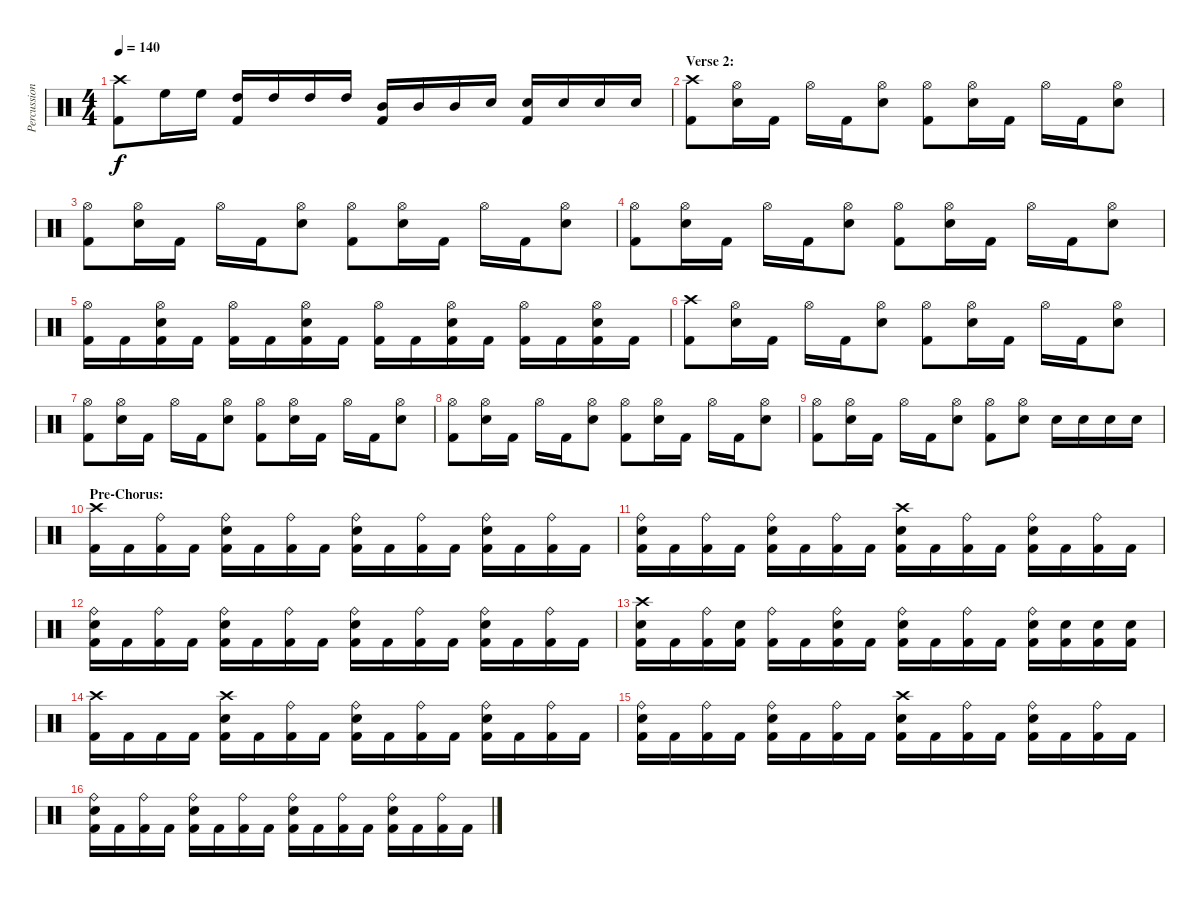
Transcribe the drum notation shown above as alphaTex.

\track ("Percussion" "Percussion") {instrument percussion}
\staff {score}
\articulation defaults
\ts (4 4)
\tempo 140
\clef neutral
\ks c
("Crash high (hit)" "Kick (hit) 2").8{dy f} "High Floor Tom (hit)".16 "High Floor Tom (hit)".16 ("High Tom (hit)" "Kick (hit) 2").16 "High Tom (hit)".16 "High Tom (hit)".16 "High Tom (hit)".16 ("Mid Tom (hit)" "Kick (hit) 2").16 "Mid Tom (hit)".16 "Mid Tom (hit)".16 "Electric Snare (hit)".16 ("Electric Snare (hit)" "Kick (hit) 2").16 "Electric Snare (hit)".16 "Electric Snare (hit)".16 "Electric Snare (hit)".16 |
\section ("" "Verse 2:")
("Crash high (hit)" "Kick (hit) 2").8 ("Hi-Hat (open)" "Electric Snare (hit)").16 "Kick (hit) 2".16 "Hi-Hat (open)".16 "Kick (hit) 2".16 ("Hi-Hat (open)" "Electric Snare (hit)").8 ("Hi-Hat (open)" "Kick (hit) 2").8 ("Hi-Hat (open)" "Electric Snare (hit)").16 "Kick (hit) 2".16 "Hi-Hat (open)".16 "Kick (hit) 2".16 ("Hi-Hat (open)" "Electric Snare (hit)").8 |
("Hi-Hat (open)" "Kick (hit) 2").8 ("Hi-Hat (open)" "Electric Snare (hit)").16 "Kick (hit) 2".16 "Hi-Hat (open)".16 "Kick (hit) 2".16 ("Hi-Hat (open)" "Electric Snare (hit)").8 ("Hi-Hat (open)" "Kick (hit) 2").8 ("Hi-Hat (open)" "Electric Snare (hit)").16 "Kick (hit) 2".16 "Hi-Hat (open)".16 "Kick (hit) 2".16 ("Hi-Hat (open)" "Electric Snare (hit)").8 |
("Hi-Hat (open)" "Kick (hit) 2").8 ("Hi-Hat (open)" "Electric Snare (hit)").16 "Kick (hit) 2".16 "Hi-Hat (open)".16 "Kick (hit) 2".16 ("Hi-Hat (open)" "Electric Snare (hit)").8 ("Hi-Hat (open)" "Kick (hit) 2").8 ("Hi-Hat (open)" "Electric Snare (hit)").16 "Kick (hit) 2".16 "Hi-Hat (open)".16 "Kick (hit) 2".16 ("Hi-Hat (open)" "Electric Snare (hit)").8 |
("Hi-Hat (open)" "Kick (hit) 2").16 "Kick (hit) 2".16 ("Hi-Hat (open)" "Electric Snare (hit)" "Kick (hit) 2").16 "Kick (hit) 2".16 ("Hi-Hat (open)" "Kick (hit) 2").16 "Kick (hit) 2".16 ("Hi-Hat (open)" "Electric Snare (hit)" "Kick (hit) 2").16 "Kick (hit) 2".16 ("Hi-Hat (open)" "Kick (hit) 2").16 "Kick (hit) 2".16 ("Hi-Hat (open)" "Electric Snare (hit)" "Kick (hit) 2").16 "Kick (hit) 2".16 ("Hi-Hat (open)" "Kick (hit) 2").16 "Kick (hit) 2".16 ("Hi-Hat (open)" "Electric Snare (hit)" "Kick (hit) 2").16 "Kick (hit) 2".16 |
("Crash high (hit)" "Kick (hit) 2").8 ("Hi-Hat (open)" "Electric Snare (hit)").16 "Kick (hit) 2".16 "Hi-Hat (open)".16 "Kick (hit) 2".16 ("Hi-Hat (open)" "Electric Snare (hit)").8 ("Hi-Hat (open)" "Kick (hit) 2").8 ("Hi-Hat (open)" "Electric Snare (hit)").16 "Kick (hit) 2".16 "Hi-Hat (open)".16 "Kick (hit) 2".16 ("Hi-Hat (open)" "Electric Snare (hit)").8 |
("Hi-Hat (open)" "Kick (hit) 2").8 ("Hi-Hat (open)" "Electric Snare (hit)").16 "Kick (hit) 2".16 "Hi-Hat (open)".16 "Kick (hit) 2".16 ("Hi-Hat (open)" "Electric Snare (hit)").8 ("Hi-Hat (open)" "Kick (hit) 2").8 ("Hi-Hat (open)" "Electric Snare (hit)").16 "Kick (hit) 2".16 "Hi-Hat (open)".16 "Kick (hit) 2".16 ("Hi-Hat (open)" "Electric Snare (hit)").8 |
("Hi-Hat (open)" "Kick (hit) 2").8 ("Hi-Hat (open)" "Electric Snare (hit)").16 "Kick (hit) 2".16 "Hi-Hat (open)".16 "Kick (hit) 2".16 ("Hi-Hat (open)" "Electric Snare (hit)").8 ("Hi-Hat (open)" "Kick (hit) 2").8 ("Hi-Hat (open)" "Electric Snare (hit)").16 "Kick (hit) 2".16 "Hi-Hat (open)".16 "Kick (hit) 2".16 ("Hi-Hat (open)" "Electric Snare (hit)").8 |
("Hi-Hat (open)" "Kick (hit) 2").8 ("Hi-Hat (open)" "Electric Snare (hit)").16 "Kick (hit) 2".16 "Hi-Hat (open)".16 "Kick (hit) 2".16 ("Hi-Hat (open)" "Electric Snare (hit)").8 ("Hi-Hat (open)" "Kick (hit) 2").8 ("Hi-Hat (open)" "Electric Snare (hit)").8 "Electric Snare (hit)".16 "Electric Snare (hit)".16 "Electric Snare (hit)".16 "Electric Snare (hit)".16 |
\section ("" "Pre-Chorus:")
("Crash high (hit)" "Kick (hit) 2").16 "Kick (hit) 2".16 ("Ride (bell)" "Kick (hit) 2").16 "Kick (hit) 2".16 ("Ride (bell)" "Electric Snare (hit)" "Kick (hit) 2").16 "Kick (hit) 2".16 ("Ride (bell)" "Kick (hit) 2").16 "Kick (hit) 2".16 ("Ride (bell)" "Electric Snare (hit)" "Kick (hit) 2").16 "Kick (hit) 2".16 ("Ride (bell)" "Kick (hit) 2").16 "Kick (hit) 2".16 ("Ride (bell)" "Electric Snare (hit)" "Kick (hit) 2").16 "Kick (hit) 2".16 ("Ride (bell)" "Kick (hit) 2").16 "Kick (hit) 2".16 |
("Ride (bell)" "Electric Snare (hit)" "Kick (hit) 2").16 "Kick (hit) 2".16 ("Ride (bell)" "Kick (hit) 2").16 "Kick (hit) 2".16 ("Ride (bell)" "Electric Snare (hit)" "Kick (hit) 2").16 "Kick (hit) 2".16 ("Ride (bell)" "Kick (hit) 2").16 "Kick (hit) 2".16 ("Crash high (hit)" "Electric Snare (hit)" "Kick (hit) 2").16 "Kick (hit) 2".16 ("Ride (bell)" "Kick (hit) 2").16 "Kick (hit) 2".16 ("Ride (bell)" "Electric Snare (hit)" "Kick (hit) 2").16 "Kick (hit) 2".16 ("Ride (bell)" "Kick (hit) 2").16 "Kick (hit) 2".16 |
("Ride (bell)" "Electric Snare (hit)" "Kick (hit) 2").16 "Kick (hit) 2".16 ("Ride (bell)" "Kick (hit) 2").16 "Kick (hit) 2".16 ("Ride (bell)" "Electric Snare (hit)" "Kick (hit) 2").16 "Kick (hit) 2".16 ("Ride (bell)" "Kick (hit) 2").16 "Kick (hit) 2".16 ("Ride (bell)" "Electric Snare (hit)" "Kick (hit) 2").16 "Kick (hit) 2".16 ("Ride (bell)" "Kick (hit) 2").16 "Kick (hit) 2".16 ("Ride (bell)" "Electric Snare (hit)" "Kick (hit) 2").16 "Kick (hit) 2".16 ("Ride (bell)" "Kick (hit) 2").16 "Kick (hit) 2".16 |
("Crash high (hit)" "Electric Snare (hit)" "Kick (hit) 2").16 "Kick (hit) 2".16 ("Ride (bell)" "Kick (hit) 2").16 ("Electric Snare (hit)" "Kick (hit) 2").16 ("Ride (bell)" "Kick (hit) 2").16 "Kick (hit) 2".16 ("Ride (bell)" "Electric Snare (hit)" "Kick (hit) 2").16 "Kick (hit) 2".16 ("Ride (bell)" "Electric Snare (hit)" "Kick (hit) 2").16 "Kick (hit) 2".16 ("Ride (bell)" "Kick (hit) 2").16 "Kick (hit) 2".16 ("Ride (bell)" "Electric Snare (hit)" "Kick (hit) 2").16 ("Electric Snare (hit)" "Kick (hit) 2").16 ("Electric Snare (hit)" "Kick (hit) 2").16 ("Electric Snare (hit)" "Kick (hit) 2").16 |
("Crash high (hit)" "Kick (hit) 2").16 "Kick (hit) 2".16 "Kick (hit) 2".16 "Kick (hit) 2".16 ("Crash high (hit)" "Electric Snare (hit)" "Kick (hit) 2").16 "Kick (hit) 2".16 ("Ride (bell)" "Kick (hit) 2").16 "Kick (hit) 2".16 ("Ride (bell)" "Electric Snare (hit)" "Kick (hit) 2").16 "Kick (hit) 2".16 ("Ride (bell)" "Kick (hit) 2").16 "Kick (hit) 2".16 ("Ride (bell)" "Electric Snare (hit)" "Kick (hit) 2").16 "Kick (hit) 2".16 ("Ride (bell)" "Kick (hit) 2").16 "Kick (hit) 2".16 |
("Ride (bell)" "Electric Snare (hit)" "Kick (hit) 2").16 "Kick (hit) 2".16 ("Ride (bell)" "Kick (hit) 2").16 "Kick (hit) 2".16 ("Ride (bell)" "Electric Snare (hit)" "Kick (hit) 2").16 "Kick (hit) 2".16 ("Ride (bell)" "Kick (hit) 2").16 "Kick (hit) 2".16 ("Crash high (hit)" "Electric Snare (hit)" "Kick (hit) 2").16 "Kick (hit) 2".16 ("Ride (bell)" "Kick (hit) 2").16 "Kick (hit) 2".16 ("Ride (bell)" "Electric Snare (hit)" "Kick (hit) 2").16 "Kick (hit) 2".16 ("Ride (bell)" "Kick (hit) 2").16 "Kick (hit) 2".16 |
("Ride (bell)" "Electric Snare (hit)" "Kick (hit) 2").16 "Kick (hit) 2".16 ("Ride (bell)" "Kick (hit) 2").16 "Kick (hit) 2".16 ("Ride (bell)" "Electric Snare (hit)" "Kick (hit) 2").16 "Kick (hit) 2".16 ("Ride (bell)" "Kick (hit) 2").16 "Kick (hit) 2".16 ("Ride (bell)" "Electric Snare (hit)" "Kick (hit) 2").16 "Kick (hit) 2".16 ("Ride (bell)" "Kick (hit) 2").16 "Kick (hit) 2".16 ("Ride (bell)" "Electric Snare (hit)" "Kick (hit) 2").16 "Kick (hit) 2".16 ("Ride (bell)" "Kick (hit) 2").16 "Kick (hit) 2".16
